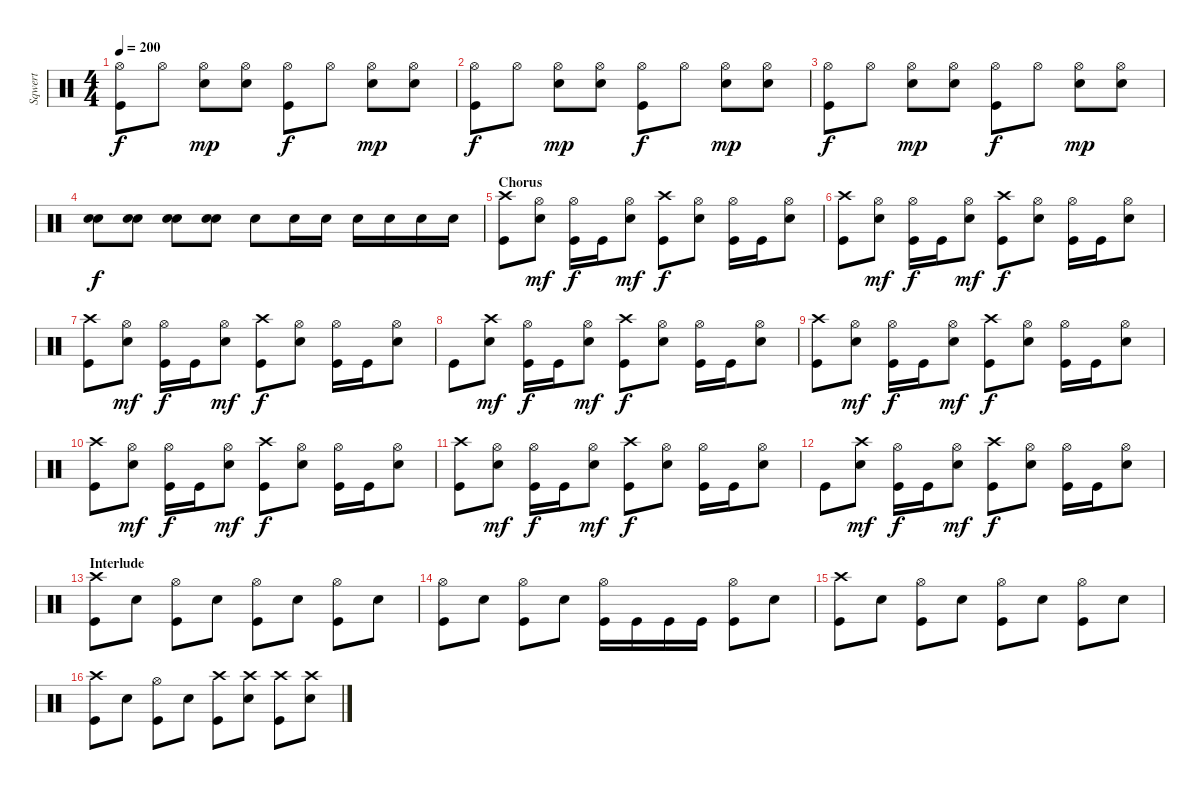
\track ("Sqwert" "Sqwert") {instrument percussion}
\staff {score}
\articulation defaults
\ts (4 4)
\tempo 200
\clef neutral
\ks c
("Hi-Hat (open)" "Kick (hit)").8{dy f} "Hi-Hat (open)".8 ("Hi-Hat (open)" "Snare (hit) 2").8{dy mp} ("Hi-Hat (open)" "Snare (hit) 2").8 ("Hi-Hat (open)" "Kick (hit)").8{dy f} "Hi-Hat (open)".8 ("Hi-Hat (open)" "Snare (hit) 2").8{dy mp} ("Hi-Hat (open)" "Snare (hit) 2").8 |
("Hi-Hat (open)" "Kick (hit)").8{dy f} "Hi-Hat (open)".8 ("Hi-Hat (open)" "Snare (hit) 2").8{dy mp} ("Hi-Hat (open)" "Snare (hit) 2").8 ("Hi-Hat (open)" "Kick (hit)").8{dy f} "Hi-Hat (open)".8 ("Hi-Hat (open)" "Snare (hit) 2").8{dy mp} ("Hi-Hat (open)" "Snare (hit) 2").8 |
("Hi-Hat (open)" "Kick (hit)").8{dy f} "Hi-Hat (open)".8 ("Hi-Hat (open)" "Snare (hit) 2").8{dy mp} ("Hi-Hat (open)" "Snare (hit) 2").8 ("Hi-Hat (open)" "Kick (hit)").8{dy f} "Hi-Hat (open)".8 ("Hi-Hat (open)" "Snare (hit) 2").8{dy mp} ("Hi-Hat (open)" "Snare (hit) 2").8 |
("Snare (hit) 2" "Snare (hit) 2").8{dy f} ("Snare (hit) 2" "Snare (hit) 2").8 ("Snare (hit) 2" "Snare (hit) 2").8 ("Snare (hit) 2" "Snare (hit) 2").8 "Snare (hit) 2".8 "Snare (hit) 2".16 "Snare (hit) 2".16 "Snare (hit) 2".16 "Snare (hit) 2".16 "Snare (hit) 2".16 "Snare (hit) 2".16 |
\section ("" "Chorus")
("Crash high (hit)" "Kick (hit)").8 ("Hi-Hat (open)" "Snare (hit) 2").8{dy mf} ("Hi-Hat (open)" "Kick (hit)").16{dy f} "Kick (hit)".16 ("Hi-Hat (open)" "Snare (hit) 2").8{dy mf} ("Crash high (hit)" "Kick (hit)").8{dy f} ("Hi-Hat (open)" "Snare (hit) 2").8 ("Hi-Hat (open)" "Kick (hit)").16 "Kick (hit)".16 ("Hi-Hat (open)" "Snare (hit) 2").8 |
("Crash high (hit)" "Kick (hit)").8 ("Hi-Hat (open)" "Snare (hit) 2").8{dy mf} ("Hi-Hat (open)" "Kick (hit)").16{dy f} "Kick (hit)".16 ("Hi-Hat (open)" "Snare (hit) 2").8{dy mf} ("Crash high (hit)" "Kick (hit)").8{dy f} ("Hi-Hat (open)" "Snare (hit) 2").8 ("Hi-Hat (open)" "Kick (hit)").16 "Kick (hit)".16 ("Hi-Hat (open)" "Snare (hit) 2").8 |
("Crash high (hit)" "Kick (hit)").8 ("Hi-Hat (open)" "Snare (hit) 2").8{dy mf} ("Hi-Hat (open)" "Kick (hit)").16{dy f} "Kick (hit)".16 ("Hi-Hat (open)" "Snare (hit) 2").8{dy mf} ("Crash high (hit)" "Kick (hit)").8{dy f} ("Hi-Hat (open)" "Snare (hit) 2").8 ("Hi-Hat (open)" "Kick (hit)").16 "Kick (hit)".16 ("Hi-Hat (open)" "Snare (hit) 2").8 |
"Kick (hit)".8 ("Crash high (hit)" "Snare (hit) 2").8{dy mf} ("Hi-Hat (open)" "Kick (hit)").16{dy f} "Kick (hit)".16 ("Hi-Hat (open)" "Snare (hit) 2").8{dy mf} ("Crash high (hit)" "Kick (hit)").8{dy f} ("Hi-Hat (open)" "Snare (hit) 2").8 ("Hi-Hat (open)" "Kick (hit)").16 "Kick (hit)".16 ("Hi-Hat (open)" "Snare (hit) 2").8 |
("Crash high (hit)" "Kick (hit)").8 ("Hi-Hat (open)" "Snare (hit) 2").8{dy mf} ("Hi-Hat (open)" "Kick (hit)").16{dy f} "Kick (hit)".16 ("Hi-Hat (open)" "Snare (hit) 2").8{dy mf} ("Crash high (hit)" "Kick (hit)").8{dy f} ("Hi-Hat (open)" "Snare (hit) 2").8 ("Hi-Hat (open)" "Kick (hit)").16 "Kick (hit)".16 ("Hi-Hat (open)" "Snare (hit) 2").8 |
("Crash high (hit)" "Kick (hit)").8 ("Hi-Hat (open)" "Snare (hit) 2").8{dy mf} ("Hi-Hat (open)" "Kick (hit)").16{dy f} "Kick (hit)".16 ("Hi-Hat (open)" "Snare (hit) 2").8{dy mf} ("Crash high (hit)" "Kick (hit)").8{dy f} ("Hi-Hat (open)" "Snare (hit) 2").8 ("Hi-Hat (open)" "Kick (hit)").16 "Kick (hit)".16 ("Hi-Hat (open)" "Snare (hit) 2").8 |
("Crash high (hit)" "Kick (hit)").8 ("Hi-Hat (open)" "Snare (hit) 2").8{dy mf} ("Hi-Hat (open)" "Kick (hit)").16{dy f} "Kick (hit)".16 ("Hi-Hat (open)" "Snare (hit) 2").8{dy mf} ("Crash high (hit)" "Kick (hit)").8{dy f} ("Hi-Hat (open)" "Snare (hit) 2").8 ("Hi-Hat (open)" "Kick (hit)").16 "Kick (hit)".16 ("Hi-Hat (open)" "Snare (hit) 2").8 |
"Kick (hit)".8 ("Crash high (hit)" "Snare (hit) 2").8{dy mf} ("Hi-Hat (open)" "Kick (hit)").16{dy f} "Kick (hit)".16 ("Hi-Hat (open)" "Snare (hit) 2").8{dy mf} ("Crash high (hit)" "Kick (hit)").8{dy f} ("Hi-Hat (open)" "Snare (hit) 2").8 ("Hi-Hat (open)" "Kick (hit)").16 "Kick (hit)".16 ("Hi-Hat (open)" "Snare (hit) 2").8 |
\section ("" "Interlude")
("Crash high (hit)" "Kick (hit)").8 "Snare (hit) 2".8 ("Hi-Hat (open)" "Kick (hit)").8 "Snare (hit) 2".8 ("Hi-Hat (open)" "Kick (hit)").8 "Snare (hit) 2".8 ("Hi-Hat (open)" "Kick (hit)").8 "Snare (hit) 2".8 |
("Hi-Hat (open)" "Kick (hit)").8 "Snare (hit) 2".8 ("Hi-Hat (open)" "Kick (hit)").8 "Snare (hit) 2".8 ("Hi-Hat (open)" "Kick (hit)").16 "Kick (hit)".16 "Kick (hit)".16 "Kick (hit)".16 ("Hi-Hat (open)" "Kick (hit)").8 "Snare (hit) 2".8 |
("Crash high (hit)" "Kick (hit)").8 "Snare (hit) 2".8 ("Hi-Hat (open)" "Kick (hit)").8 "Snare (hit) 2".8 ("Hi-Hat (open)" "Kick (hit)").8 "Snare (hit) 2".8 ("Hi-Hat (open)" "Kick (hit)").8 "Snare (hit) 2".8 |
("Crash high (hit)" "Kick (hit)").8 "Snare (hit) 2".8 ("Hi-Hat (open)" "Kick (hit)").8 "Snare (hit) 2".8 ("Crash high (hit)" "Kick (hit)").8 ("Crash high (hit)" "Snare (hit) 2").8 ("Crash high (hit)" "Kick (hit)").8 ("Crash high (hit)" "Snare (hit) 2").8
